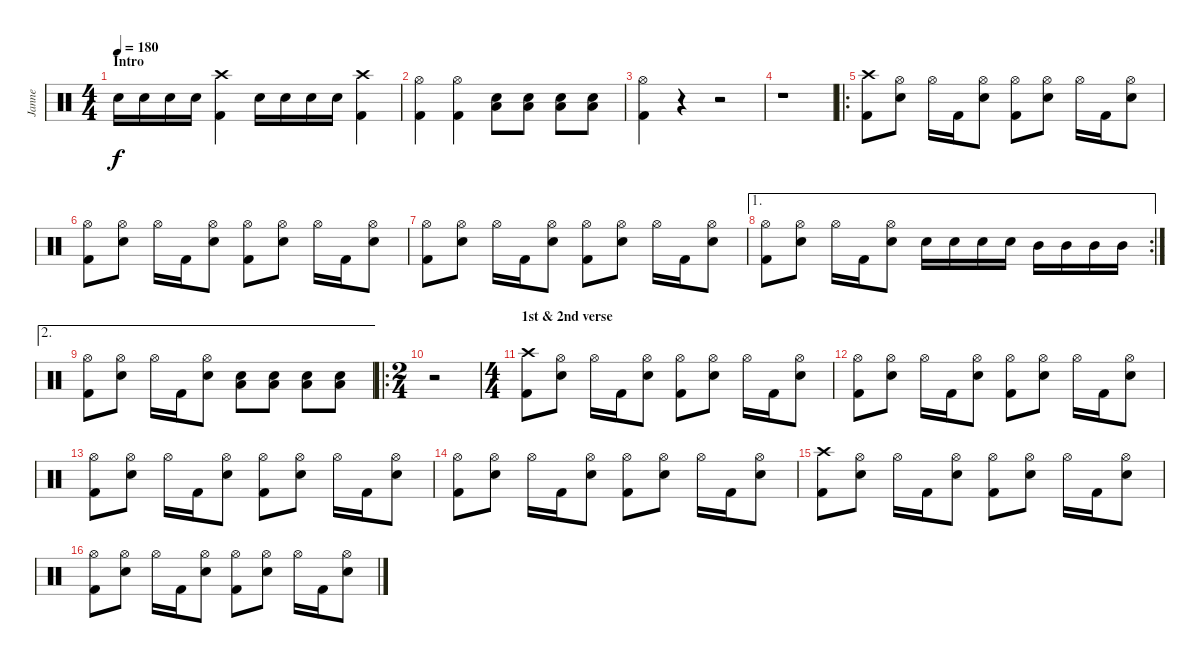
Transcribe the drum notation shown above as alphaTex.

\track ("Janne" "Janne") {instrument percussion}
\staff {score}
\articulation defaults
\ts (4 4)
\section ("" "Intro")
\tempo 180
\clef neutral
\ks c "Electric Snare (hit)".16{dy f} "Electric Snare (hit)".16 "Electric Snare (hit)".16 "Electric Snare (hit)".16
("Crash high (hit)" "Kick (hit) 2").4 "Electric Snare (hit)".16 "Electric Snare (hit)".16 "Electric Snare (hit)".16 "Electric Snare (hit)".16 ("Crash high (hit)" "Kick (hit) 2").4 |
("Hi-Hat (open)" "Kick (hit) 2").4 ("Hi-Hat (open)" "Kick (hit) 2").4 ("Low Floor Tom (hit)" "Electric Snare (hit)").8 ("Low Floor Tom (hit)" "Electric Snare (hit)").8 ("Low Floor Tom (hit)" "Electric Snare (hit)").8 ("Low Floor Tom (hit)" "Electric Snare (hit)").8 |
("Hi-Hat (open)" "Kick (hit) 2").4 r.4 r.2 |
r.1 |
\ro
("Crash high (hit)" "Kick (hit) 2").8 ("Hi-Hat (open)" "Electric Snare (hit)").8 "Hi-Hat (open)".16 "Kick (hit) 2".16 ("Hi-Hat (open)" "Electric Snare (hit)").8 ("Hi-Hat (open)" "Kick (hit) 2").8 ("Hi-Hat (open)" "Electric Snare (hit)").8 "Hi-Hat (open)".16 "Kick (hit) 2".16 ("Hi-Hat (open)" "Electric Snare (hit)").8 |
("Hi-Hat (open)" "Kick (hit) 2").8 ("Hi-Hat (open)" "Electric Snare (hit)").8 "Hi-Hat (open)".16 "Kick (hit) 2".16 ("Hi-Hat (open)" "Electric Snare (hit)").8 ("Hi-Hat (open)" "Kick (hit) 2").8 ("Hi-Hat (open)" "Electric Snare (hit)").8 "Hi-Hat (open)".16 "Kick (hit) 2".16 ("Hi-Hat (open)" "Electric Snare (hit)").8 |
("Hi-Hat (open)" "Kick (hit) 2").8 ("Hi-Hat (open)" "Electric Snare (hit)").8 "Hi-Hat (open)".16 "Kick (hit) 2".16 ("Hi-Hat (open)" "Electric Snare (hit)").8 ("Hi-Hat (open)" "Kick (hit) 2").8 ("Hi-Hat (open)" "Electric Snare (hit)").8 "Hi-Hat (open)".16 "Kick (hit) 2".16 ("Hi-Hat (open)" "Electric Snare (hit)").8 |
\ae 1
\rc 2
("Hi-Hat (open)" "Kick (hit) 2").8 ("Hi-Hat (open)" "Electric Snare (hit)").8 "Hi-Hat (open)".16 "Kick (hit) 2".16 ("Hi-Hat (open)" "Electric Snare (hit)").8 "Electric Snare (hit)".16 "Electric Snare (hit)".16 "Electric Snare (hit)".16 "Electric Snare (hit)".16 "Mid Tom (hit)".16 "Mid Tom (hit)".16 "Mid Tom (hit)".16 "Mid Tom (hit)".16 |
\ae 2
("Hi-Hat (open)" "Kick (hit) 2").8 ("Hi-Hat (open)" "Electric Snare (hit)").8 "Hi-Hat (open)".16 "Kick (hit) 2".16 ("Hi-Hat (open)" "Electric Snare (hit)").8 ("Low Floor Tom (hit)" "Electric Snare (hit)").8 ("Low Floor Tom (hit)" "Electric Snare (hit)").8 ("Low Floor Tom (hit)" "Electric Snare (hit)").8 ("Low Floor Tom (hit)" "Electric Snare (hit)").8 |
\ro
\ts (2 4)
r.2 |
\ts (4 4)
\section ("" "1st & 2nd verse")
("Crash high (hit)" "Kick (hit) 2").8 ("Hi-Hat (open)" "Electric Snare (hit)").8 "Hi-Hat (open)".16 "Kick (hit) 2".16 ("Hi-Hat (open)" "Electric Snare (hit)").8 ("Hi-Hat (open)" "Kick (hit) 2").8 ("Hi-Hat (open)" "Electric Snare (hit)").8 "Hi-Hat (open)".16 "Kick (hit) 2".16 ("Hi-Hat (open)" "Electric Snare (hit)").8 |
("Hi-Hat (open)" "Kick (hit) 2").8 ("Hi-Hat (open)" "Electric Snare (hit)").8 "Hi-Hat (open)".16 "Kick (hit) 2".16 ("Hi-Hat (open)" "Electric Snare (hit)").8 ("Hi-Hat (open)" "Kick (hit) 2").8 ("Hi-Hat (open)" "Electric Snare (hit)").8 "Hi-Hat (open)".16 "Kick (hit) 2".16 ("Hi-Hat (open)" "Electric Snare (hit)").8 |
("Hi-Hat (open)" "Kick (hit) 2").8 ("Hi-Hat (open)" "Electric Snare (hit)").8 "Hi-Hat (open)".16 "Kick (hit) 2".16 ("Hi-Hat (open)" "Electric Snare (hit)").8 ("Hi-Hat (open)" "Kick (hit) 2").8 ("Hi-Hat (open)" "Electric Snare (hit)").8 "Hi-Hat (open)".16 "Kick (hit) 2".16 ("Hi-Hat (open)" "Electric Snare (hit)").8 |
("Hi-Hat (open)" "Kick (hit) 2").8 ("Hi-Hat (open)" "Electric Snare (hit)").8 "Hi-Hat (open)".16 "Kick (hit) 2".16 ("Hi-Hat (open)" "Electric Snare (hit)").8 ("Hi-Hat (open)" "Kick (hit) 2").8 ("Hi-Hat (open)" "Electric Snare (hit)").8 "Hi-Hat (open)".16 "Kick (hit) 2".16 ("Hi-Hat (open)" "Electric Snare (hit)").8 |
("Crash high (hit)" "Kick (hit) 2").8 ("Hi-Hat (open)" "Electric Snare (hit)").8 "Hi-Hat (open)".16 "Kick (hit) 2".16 ("Hi-Hat (open)" "Electric Snare (hit)").8 ("Hi-Hat (open)" "Kick (hit) 2").8 ("Hi-Hat (open)" "Electric Snare (hit)").8 "Hi-Hat (open)".16 "Kick (hit) 2".16 ("Hi-Hat (open)" "Electric Snare (hit)").8 |
("Hi-Hat (open)" "Kick (hit) 2").8 ("Hi-Hat (open)" "Electric Snare (hit)").8 "Hi-Hat (open)".16 "Kick (hit) 2".16 ("Hi-Hat (open)" "Electric Snare (hit)").8 ("Hi-Hat (open)" "Kick (hit) 2").8 ("Hi-Hat (open)" "Electric Snare (hit)").8 "Hi-Hat (open)".16 "Kick (hit) 2".16 ("Hi-Hat (open)" "Electric Snare (hit)").8
